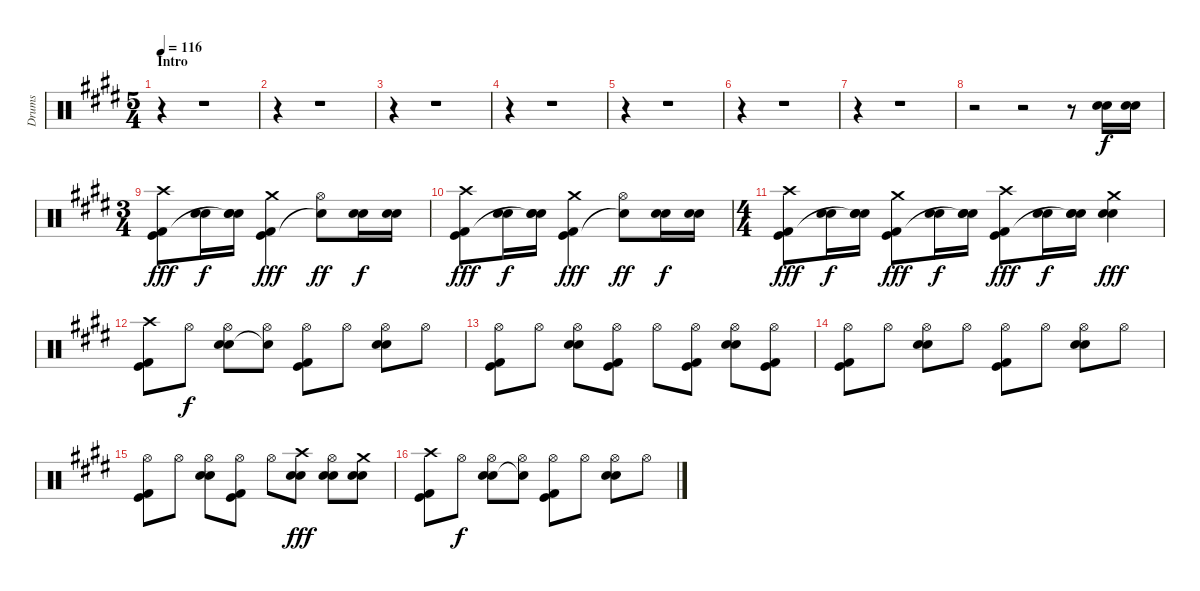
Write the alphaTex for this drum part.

\track ("Drums" "Drums") {instrument percussion}
\staff {score}
\articulation defaults
\ts (5 4)
\section ("" "Intro")
\tempo 116
\clef neutral
\ks e
r.4{dy f} r.1{volume 16} |
r.4 r.1 |
r.4 r.1 |
r.4 r.1 |
r.4 r.1 |
r.4 r.1 |
r.4 r.1 |
r.2 r.2 r.8 ("Electric Snare (hit)" "Snare (hit) 2").16 ("Electric Snare (hit)" "Snare (hit) 2").16 |
\ts (3 4)
("Crash high (hit)" "Kick (hit)" "Kick (hit) 2").8{dy fff} ("Electric Snare (hit)" "Snare (hit) 2").16{dy f} ("Electric Snare (hit)" "Snare (hit) 2" "Snare (hit)"{t}).16 ("Crash medium (hit)" "Kick (hit)" "Kick (hit) 2").4{dy fff} ("Hi-Hat (open)" "Snare (hit)"{t}).8{dy ff} ("Electric Snare (hit)" "Snare (hit) 2").16{dy f} ("Electric Snare (hit)" "Snare (hit) 2").16 |
("Crash high (hit)" "Kick (hit)" "Kick (hit) 2").8{dy fff} ("Electric Snare (hit)" "Snare (hit) 2").16{dy f} ("Electric Snare (hit)" "Snare (hit) 2" "Snare (hit)"{t}).16 ("Crash medium (hit)" "Kick (hit)" "Kick (hit) 2").4{dy fff} ("Hi-Hat (open)" "Snare (hit)"{t}).8{dy ff} ("Electric Snare (hit)" "Snare (hit) 2").16{dy f} ("Electric Snare (hit)" "Snare (hit) 2").16 |
\ts (4 4)
("Crash high (hit)" "Kick (hit)" "Kick (hit) 2").8{dy fff} ("Electric Snare (hit)" "Snare (hit) 2").16{dy f} ("Electric Snare (hit)" "Snare (hit) 2" "Snare (hit)"{t}).16 ("Crash medium (hit)" "Kick (hit)" "Kick (hit) 2").8{dy fff} ("Electric Snare (hit)" "Snare (hit) 2").16{dy f} ("Electric Snare (hit)" "Snare (hit) 2" "Snare (hit)"{t}).16 ("Crash high (hit)" "Kick (hit)" "Kick (hit) 2").8{dy fff} ("Electric Snare (hit)" "Snare (hit) 2").16{dy f} ("Electric Snare (hit)" "Snare (hit) 2" "Snare (hit)"{t}).16 ("Electric Snare (hit)" "Snare (hit) 2" "Crash medium (hit)").4{dy fff} |
("Crash high (hit)" "Kick (hit)" "Kick (hit) 2").8 "Hi-Hat (open)".8{dy f} ("Hi-Hat (open)" "Electric Snare (hit)" "Snare (hit) 2").8 ("Hi-Hat (open)" "Snare (hit)"{t}).8 ("Hi-Hat (open)" "Kick (hit)" "Kick (hit) 2").8 "Hi-Hat (open)".8 ("Hi-Hat (open)" "Electric Snare (hit)" "Snare (hit) 2").8 "Hi-Hat (open)".8 |
("Hi-Hat (open)" "Kick (hit)" "Kick (hit) 2").8 "Hi-Hat (open)".8 ("Hi-Hat (open)" "Electric Snare (hit)" "Snare (hit) 2").8 ("Hi-Hat (open)" "Kick (hit)" "Kick (hit) 2").8 "Hi-Hat (open)".8 ("Hi-Hat (open)" "Kick (hit)" "Kick (hit) 2").8 ("Hi-Hat (open)" "Electric Snare (hit)" "Snare (hit) 2").8 ("Hi-Hat (open)" "Kick (hit)" "Kick (hit) 2").8 |
("Hi-Hat (open)" "Kick (hit)" "Kick (hit) 2").8 "Hi-Hat (open)".8 ("Hi-Hat (open)" "Electric Snare (hit)" "Snare (hit) 2").8 "Hi-Hat (open)".8 ("Hi-Hat (open)" "Kick (hit)" "Kick (hit) 2").8 "Hi-Hat (open)".8 ("Hi-Hat (open)" "Electric Snare (hit)" "Snare (hit) 2").8 "Hi-Hat (open)".8 |
("Hi-Hat (open)" "Kick (hit)" "Kick (hit) 2").8 "Hi-Hat (open)".8 ("Hi-Hat (open)" "Electric Snare (hit)" "Snare (hit) 2").8 ("Hi-Hat (open)" "Kick (hit)" "Kick (hit) 2").8 "Hi-Hat (open)".8 ("Electric Snare (hit)" "Snare (hit) 2" "Crash high (hit)").8{dy fff} ("Hi-Hat (open)" "Electric Snare (hit)" "Snare (hit) 2").8 ("Electric Snare (hit)" "Snare (hit) 2" "Crash medium (hit)").8 |
("Crash high (hit)" "Kick (hit)" "Kick (hit) 2").8 "Hi-Hat (open)".8{dy f} ("Hi-Hat (open)" "Electric Snare (hit)" "Snare (hit) 2").8 ("Hi-Hat (open)" "Snare (hit)"{t}).8 ("Hi-Hat (open)" "Kick (hit)" "Kick (hit) 2").8 "Hi-Hat (open)".8 ("Hi-Hat (open)" "Electric Snare (hit)" "Snare (hit) 2").8 "Hi-Hat (open)".8
